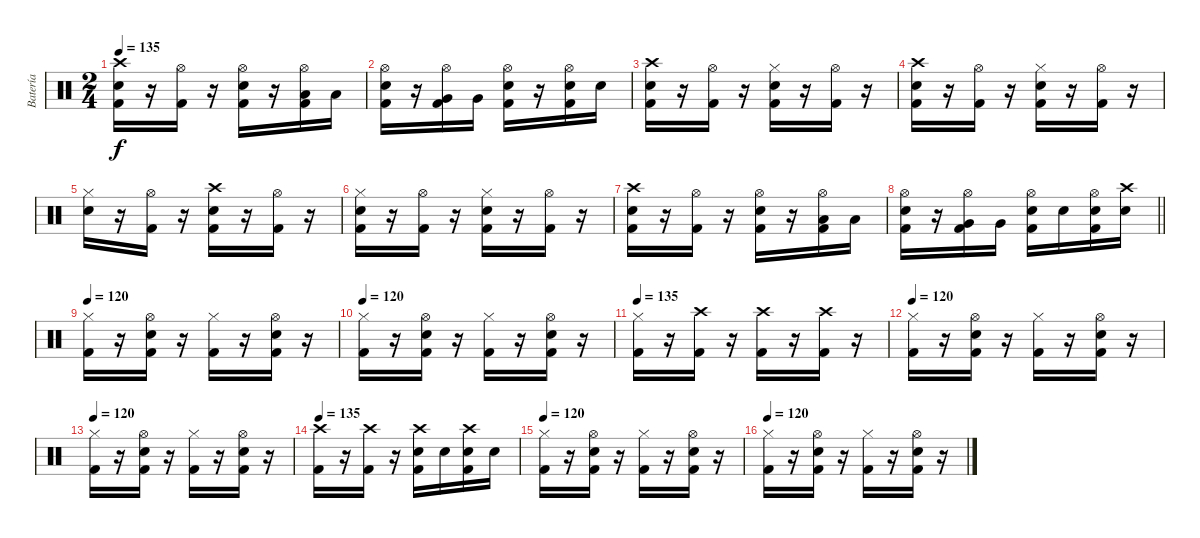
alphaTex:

\track ("Batería   (Jony)" "Batería   ") {instrument percussion}
\staff {score}
\articulation defaults
\ts (2 4)
\tempo 135
\clef neutral
\ks c
("Crash high (hit)" "Electric Snare (hit)" "Kick (hit) 2").16{dy f} r.16 ("Hi-Hat (open)" "Kick (hit) 2").16 r.16 ("Hi-Hat (open)" "Electric Snare (hit)" "Kick (hit) 2").16 r.16 ("Hi-Hat (open)" "Low Tom (hit)" "Kick (hit) 2").16 "Low Tom (hit)".16 |
("Hi-Hat (open)" "Electric Snare (hit)" "Kick (hit) 2").16 r.16 ("Hi-Hat (open)" "Very Low Tom (hit)" "Kick (hit) 2").16 "Very Low Tom (hit)".16 ("Hi-Hat (open)" "Electric Snare (hit)" "Kick (hit) 2").16 r.16 ("Hi-Hat (open)" "Electric Snare (hit)" "Kick (hit) 2").16 "Electric Snare (hit)".16 |
("Crash high (hit)" "Electric Snare (hit)" "Kick (hit) 2").16 r.16 ("Hi-Hat (open)" "Kick (hit) 2").16 r.16 ("Hi-Hat (closed)" "Electric Snare (hit)" "Kick (hit) 2").16 r.16 ("Hi-Hat (open)" "Kick (hit) 2").16 r.16 |
("Crash high (hit)" "Electric Snare (hit)" "Kick (hit) 2").16 r.16 ("Hi-Hat (open)" "Kick (hit) 2").16 r.16 ("Hi-Hat (closed)" "Electric Snare (hit)" "Kick (hit) 2").16 r.16 ("Hi-Hat (open)" "Kick (hit) 2").16 r.16 |
("Hi-Hat (closed)" "Electric Snare (hit)").16 r.16 ("Hi-Hat (open)" "Kick (hit) 2").16 r.16 ("Crash high (hit)" "Electric Snare (hit)" "Kick (hit) 2").16 r.16 ("Hi-Hat (open)" "Kick (hit) 2").16 r.16 |
("Hi-Hat (closed)" "Electric Snare (hit)" "Kick (hit) 2").16 r.16 ("Hi-Hat (open)" "Kick (hit) 2").16 r.16 ("Hi-Hat (closed)" "Electric Snare (hit)" "Kick (hit) 2").16 r.16 ("Hi-Hat (open)" "Kick (hit) 2").16 r.16 |
("Crash high (hit)" "Electric Snare (hit)" "Kick (hit) 2").16 r.16 ("Hi-Hat (open)" "Kick (hit) 2").16 r.16 ("Hi-Hat (open)" "Electric Snare (hit)" "Kick (hit) 2").16 r.16 ("Hi-Hat (open)" "Low Tom (hit)" "Kick (hit) 2").16 "Low Tom (hit)".16 |
\barLineRight lightlight
("Hi-Hat (open)" "Electric Snare (hit)" "Kick (hit) 2").16 r.16 ("Hi-Hat (open)" "Very Low Tom (hit)" "Kick (hit) 2").16 "Very Low Tom (hit)".16 ("Hi-Hat (open)" "Electric Snare (hit)" "Kick (hit) 2").16 "Electric Snare (hit)".16 ("Hi-Hat (open)" "Electric Snare (hit)" "Kick (hit) 2").16 ("Crash high (hit)" "Electric Snare (hit)").16 |
\tempo 120
("Hi-Hat (closed)" "Kick (hit) 2").16 r.16 ("Hi-Hat (open)" "Electric Snare (hit)" "Kick (hit) 2").16 r.16 ("Hi-Hat (closed)" "Kick (hit) 2").16 r.16 ("Hi-Hat (open)" "Electric Snare (hit)" "Kick (hit) 2").16 r.16 |
\tempo 120
("Hi-Hat (closed)" "Kick (hit) 2").16 r.16 ("Hi-Hat (open)" "Electric Snare (hit)" "Kick (hit) 2").16 r.16 ("Hi-Hat (closed)" "Kick (hit) 2").16 r.16 ("Hi-Hat (open)" "Electric Snare (hit)" "Kick (hit) 2").16 r.16 |
\tempo 135
("Hi-Hat (closed)" "Kick (hit) 2").16 r.16 ("Crash high (hit)" "Kick (hit) 2").16 r.16 ("Crash high (hit)" "Kick (hit) 2").16 r.16 ("Crash high (hit)" "Kick (hit) 2").16 r.16 |
\tempo 120
("Hi-Hat (closed)" "Kick (hit) 2").16 r.16 ("Hi-Hat (open)" "Electric Snare (hit)" "Kick (hit) 2").16 r.16 ("Hi-Hat (closed)" "Kick (hit) 2").16 r.16 ("Hi-Hat (open)" "Electric Snare (hit)" "Kick (hit) 2").16 r.16 |
\tempo 120
("Hi-Hat (closed)" "Kick (hit) 2").16 r.16 ("Hi-Hat (open)" "Electric Snare (hit)" "Kick (hit) 2").16 r.16 ("Hi-Hat (closed)" "Kick (hit) 2").16 r.16 ("Hi-Hat (open)" "Electric Snare (hit)" "Kick (hit) 2").16 r.16 |
\tempo 135
("Crash high (hit)" "Kick (hit) 2").16 r.16 ("Crash high (hit)" "Kick (hit) 2").16 r.16 ("Crash high (hit)" "Electric Snare (hit)" "Kick (hit) 2").16 "Electric Snare (hit)".16 ("Crash high (hit)" "Electric Snare (hit)" "Kick (hit) 2").16 "Electric Snare (hit)".16 |
\tempo 120
("Hi-Hat (closed)" "Kick (hit) 2").16 r.16 ("Hi-Hat (open)" "Electric Snare (hit)" "Kick (hit) 2").16 r.16 ("Hi-Hat (closed)" "Kick (hit) 2").16 r.16 ("Hi-Hat (open)" "Electric Snare (hit)" "Kick (hit) 2").16 r.16 |
\tempo 120
("Hi-Hat (closed)" "Kick (hit) 2").16 r.16 ("Hi-Hat (open)" "Electric Snare (hit)" "Kick (hit) 2").16 r.16 ("Hi-Hat (closed)" "Kick (hit) 2").16 r.16 ("Hi-Hat (open)" "Electric Snare (hit)" "Kick (hit) 2").16 r.16
